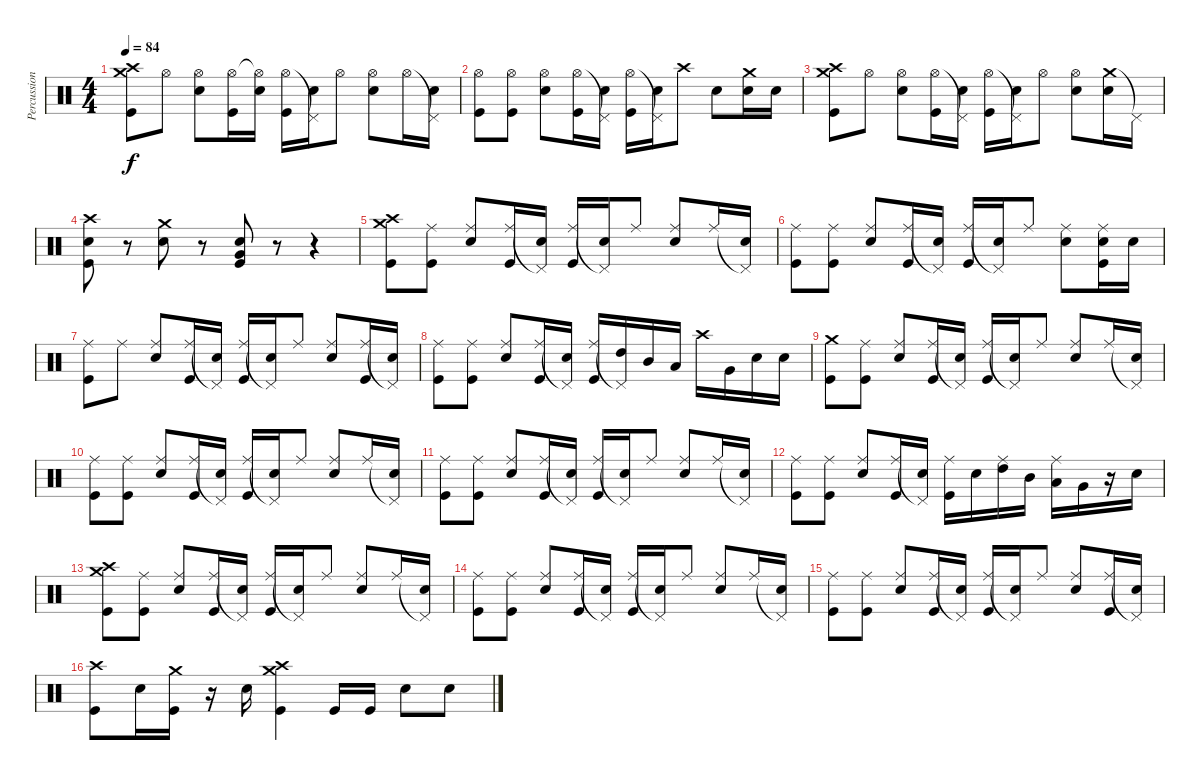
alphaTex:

\track ("Percussion" "Percussion") {instrument percussion}
\staff {score}
\articulation defaults
\ts (4 4)
\tempo 84
\clef neutral
\ks c
("Crash medium (hit)" "Crash high (hit)" "Kick (hit)").8{dy f} "Hi-Hat (open)".8 ("Hi-Hat (open)" "Electric Snare (hit)").8 ("Hi-Hat (open)" "Kick (hit)").16 ("Hi-Hat (open)"{t} "Electric Snare (hit)").16 ("Hi-Hat (open)" "Kick (hit)").16 ("Pedal Hi-Hat (hit)"{t} "Electric Snare (hit)").16 "Hi-Hat (open)".8 ("Hi-Hat (open)" "Electric Snare (hit)").8 "Hi-Hat (open)".16 ("Pedal Hi-Hat (hit)"{t} "Electric Snare (hit)").16 |
("Hi-Hat (open)" "Kick (hit)").8 ("Hi-Hat (open)" "Kick (hit)").8 ("Hi-Hat (open)" "Electric Snare (hit)").8 ("Hi-Hat (open)" "Kick (hit)").16 ("Pedal Hi-Hat (hit)"{t} "Electric Snare (hit)").16 ("Hi-Hat (open)" "Kick (hit)").16 ("Pedal Hi-Hat (hit)"{t} "Electric Snare (hit)").16 "Crash high (hit)".8 "Electric Snare (hit)".8 ("Crash medium (hit)" "Electric Snare (hit)").16 "Electric Snare (hit)".16 |
("Crash medium (hit)" "Crash high (hit)" "Kick (hit)").8 "Hi-Hat (open)".8 ("Hi-Hat (open)" "Electric Snare (hit)").8 ("Hi-Hat (open)" "Kick (hit)").16 ("Pedal Hi-Hat (hit)"{t} "Electric Snare (hit)").16 ("Hi-Hat (open)" "Kick (hit)").16 ("Pedal Hi-Hat (hit)"{t} "Electric Snare (hit)").16 "Hi-Hat (open)".8 ("Hi-Hat (open)" "Electric Snare (hit)").8 ("Crash medium (hit)" "Electric Snare (hit)").16 "Pedal Hi-Hat (hit)"{t}.16 |
("Crash high (hit)" "Electric Snare (hit)" "Kick (hit)").8 r.8 ("Crash medium (hit)" "Electric Snare (hit)").8 r.8 ("Electric Snare (hit)" "Very Low Tom (hit)" "Kick (hit)").8 r.8 r.4 |
("Crash medium (hit)" "Crash high (hit)" "Kick (hit)").8 ("Ride (middle)" "Kick (hit)").8 ("Ride (middle)" "Electric Snare (hit)").8 ("Ride (middle)" "Kick (hit)").16 ("Pedal Hi-Hat (hit)"{t} "Electric Snare (hit)").16 ("Ride (middle)" "Kick (hit)").16 ("Pedal Hi-Hat (hit)"{t} "Electric Snare (hit)").16 "Ride (middle)".8 ("Ride (middle)" "Electric Snare (hit)").8 "Ride (middle)".16 ("Pedal Hi-Hat (hit)"{t} "Electric Snare (hit)").16 |
("Ride (middle)" "Kick (hit)").8 ("Ride (middle)" "Kick (hit)").8 ("Ride (middle)" "Electric Snare (hit)").8 ("Ride (middle)" "Kick (hit)").16 ("Pedal Hi-Hat (hit)"{t} "Electric Snare (hit)").16 ("Ride (middle)" "Kick (hit)").16 ("Pedal Hi-Hat (hit)"{t} "Electric Snare (hit)").16 "Ride (middle)".8 ("Ride (middle)" "Electric Snare (hit)").8 ("Ride (middle)" "Electric Snare (hit)" "Kick (hit)").16 "Electric Snare (hit)".16 |
("Ride (middle)" "Kick (hit)").8 "Ride (middle)".8 ("Ride (middle)" "Electric Snare (hit)").8 ("Ride (middle)" "Kick (hit)").16 ("Pedal Hi-Hat (hit)"{t} "Electric Snare (hit)").16 ("Ride (middle)" "Kick (hit)").16 ("Pedal Hi-Hat (hit)"{t} "Electric Snare (hit)").16 "Ride (middle)".8 ("Ride (middle)" "Electric Snare (hit)").8 ("Ride (middle)" "Kick (hit)").16 ("Pedal Hi-Hat (hit)"{t} "Electric Snare (hit)").16 |
("Ride (middle)" "Kick (hit)").8 ("Ride (middle)" "Kick (hit)").8 ("Ride (middle)" "Electric Snare (hit)").8 ("Ride (middle)" "Kick (hit)").16 ("Pedal Hi-Hat (hit)"{t} "Electric Snare (hit)").16 ("Ride (middle)" "Kick (hit)").16 ("Pedal Hi-Hat (hit)"{t} "High Tom (hit)").16 "Mid Tom (hit)".16 "Low Tom (hit)".16 "Crash high (hit)".16 "Very Low Tom (hit)".16 "Electric Snare (hit)".16 "Electric Snare (hit)".16 |
("Crash medium (hit)" "Kick (hit)").8 ("Ride (middle)" "Kick (hit)").8 ("Ride (middle)" "Electric Snare (hit)").8 ("Ride (middle)" "Kick (hit)").16 ("Pedal Hi-Hat (hit)"{t} "Electric Snare (hit)").16 ("Ride (middle)" "Kick (hit)").16 ("Pedal Hi-Hat (hit)"{t} "Electric Snare (hit)").16 "Ride (middle)".8 ("Ride (middle)" "Electric Snare (hit)").8 "Ride (middle)".16 ("Pedal Hi-Hat (hit)"{t} "Electric Snare (hit)").16 |
("Ride (middle)" "Kick (hit)").8 ("Ride (middle)" "Kick (hit)").8 ("Ride (middle)" "Electric Snare (hit)").8 ("Ride (middle)" "Kick (hit)").16 ("Pedal Hi-Hat (hit)"{t} "Electric Snare (hit)").16 ("Ride (middle)" "Kick (hit)").16 ("Pedal Hi-Hat (hit)"{t} "Electric Snare (hit)").16 "Ride (middle)".8 ("Ride (middle)" "Electric Snare (hit)").8 "Ride (middle)".16 ("Pedal Hi-Hat (hit)"{t} "Electric Snare (hit)").16 |
("Ride (middle)" "Kick (hit)").8 ("Ride (middle)" "Kick (hit)").8 ("Ride (middle)" "Electric Snare (hit)").8 ("Ride (middle)" "Kick (hit)").16 ("Pedal Hi-Hat (hit)"{t} "Electric Snare (hit)").16 ("Ride (middle)" "Kick (hit)").16 ("Pedal Hi-Hat (hit)"{t} "Electric Snare (hit)").16 "Ride (middle)".8 ("Ride (middle)" "Electric Snare (hit)").8 "Ride (middle)".16 ("Pedal Hi-Hat (hit)"{t} "Electric Snare (hit)").16 |
("Ride (middle)" "Kick (hit)").8 ("Ride (middle)" "Kick (hit)").8 ("Ride (middle)" "Electric Snare (hit)").8 ("Ride (middle)" "Kick (hit)").16 ("Pedal Hi-Hat (hit)"{t} "Electric Snare (hit)").16 ("Ride (middle)" "Kick (hit)").16 "Electric Snare (hit)".16 ("Ride (middle)" "High Tom (hit)").16 "Mid Tom (hit)".16 ("Ride (middle)" "Low Tom (hit)").16 "Very Low Tom (hit)".16 r.16 "Electric Snare (hit)".16 |
("Crash medium (hit)" "Crash high (hit)" "Kick (hit)").8 ("Ride (middle)" "Kick (hit)").8 ("Ride (middle)" "Electric Snare (hit)").8 ("Ride (middle)" "Kick (hit)").16 ("Pedal Hi-Hat (hit)"{t} "Electric Snare (hit)").16 ("Ride (middle)" "Kick (hit)").16 ("Pedal Hi-Hat (hit)"{t} "Electric Snare (hit)").16 "Ride (middle)".8 ("Ride (middle)" "Electric Snare (hit)").8 "Ride (middle)".16 ("Pedal Hi-Hat (hit)"{t} "Electric Snare (hit)").16 |
("Ride (middle)" "Kick (hit)").8 ("Ride (middle)" "Kick (hit)").8 ("Ride (middle)" "Electric Snare (hit)").8 ("Ride (middle)" "Kick (hit)").16 ("Pedal Hi-Hat (hit)"{t} "Electric Snare (hit)").16 ("Ride (middle)" "Kick (hit)").16 ("Pedal Hi-Hat (hit)"{t} "Electric Snare (hit)").16 "Ride (middle)".8 ("Ride (middle)" "Electric Snare (hit)").8 "Ride (middle)".16 ("Pedal Hi-Hat (hit)"{t} "Electric Snare (hit)").16 |
("Ride (middle)" "Kick (hit)").8 ("Ride (middle)" "Kick (hit)").8 ("Ride (middle)" "Electric Snare (hit)").8 ("Ride (middle)" "Kick (hit)").16 ("Pedal Hi-Hat (hit)"{t} "Electric Snare (hit)").16 ("Ride (middle)" "Kick (hit)").16 ("Pedal Hi-Hat (hit)"{t} "Electric Snare (hit)").16 "Ride (middle)".8 ("Ride (middle)" "Electric Snare (hit)").8 ("Ride (middle)" "Kick (hit)").16 ("Pedal Hi-Hat (hit)"{t} "Electric Snare (hit)").16 |
("Crash high (hit)" "Kick (hit)").8 "Electric Snare (hit)".16 ("Crash medium (hit)" "Kick (hit)").16 r.16 "Electric Snare (hit)".16 ("Crash medium (hit)" "Crash high (hit)" "Kick (hit)").4 "Kick (hit)".16 "Kick (hit)".16 "Electric Snare (hit)".8 "Electric Snare (hit)".8
